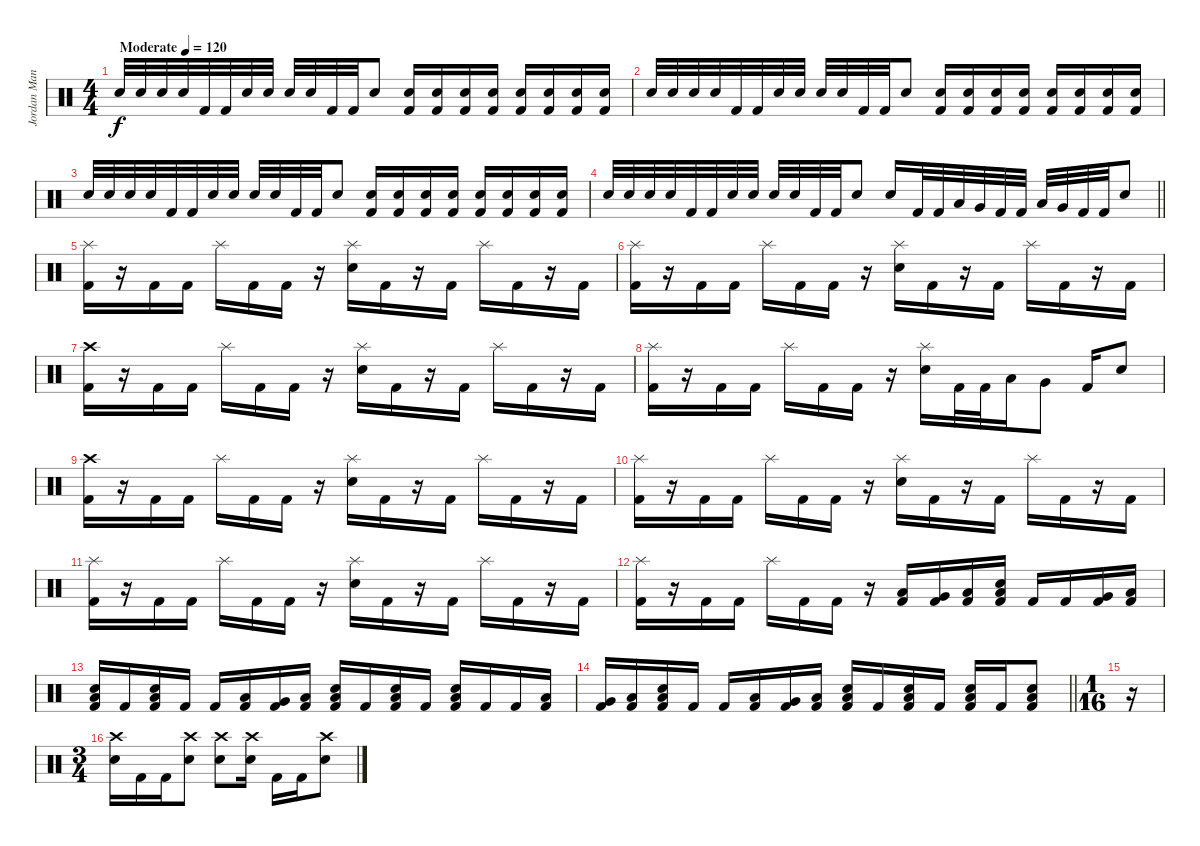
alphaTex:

\track ("Jordan Mancino" "Jordan Man") {instrument percussion}
\staff
\articulation defaults
\ts (4 4)
\tempo (120 "Moderate")
\clef neutral
\ks c "Snare (hit) 2".32{dy f} "Snare (hit) 2".32 "Snare (hit) 2".32 "Snare (hit) 2".32 "Kick (hit) 2".32 "Kick (hit) 2".32 "Snare (hit) 2".32 "Snare (hit) 2".32 "Snare (hit) 2".32 "Snare (hit) 2".32 "Kick (hit) 2".32 "Kick (hit) 2".32 "Snare (hit) 2".8
("Snare (hit) 2" "Kick (hit) 2").16 ("Snare (hit) 2" "Kick (hit) 2").16 ("Snare (hit) 2" "Kick (hit) 2").16 ("Snare (hit) 2" "Kick (hit) 2").16 ("Snare (hit) 2" "Kick (hit) 2").16 ("Snare (hit) 2" "Kick (hit) 2").16 ("Snare (hit) 2" "Kick (hit) 2").16 ("Snare (hit) 2" "Kick (hit) 2").16 |
"Snare (hit) 2".32 "Snare (hit) 2".32 "Snare (hit) 2".32 "Snare (hit) 2".32 "Kick (hit) 2".32 "Kick (hit) 2".32 "Snare (hit) 2".32 "Snare (hit) 2".32 "Snare (hit) 2".32 "Snare (hit) 2".32 "Kick (hit) 2".32 "Kick (hit) 2".32 "Snare (hit) 2".8 ("Snare (hit) 2" "Kick (hit) 2").16 ("Snare (hit) 2" "Kick (hit) 2").16 ("Snare (hit) 2" "Kick (hit) 2").16 ("Snare (hit) 2" "Kick (hit) 2").16 ("Snare (hit) 2" "Kick (hit) 2").16 ("Snare (hit) 2" "Kick (hit) 2").16 ("Snare (hit) 2" "Kick (hit) 2").16 ("Snare (hit) 2" "Kick (hit) 2").16 |
"Snare (hit) 2".32 "Snare (hit) 2".32 "Snare (hit) 2".32 "Snare (hit) 2".32 "Kick (hit) 2".32 "Kick (hit) 2".32 "Snare (hit) 2".32 "Snare (hit) 2".32 "Snare (hit) 2".32 "Snare (hit) 2".32 "Kick (hit) 2".32 "Kick (hit) 2".32 "Snare (hit) 2".8 ("Snare (hit) 2" "Kick (hit) 2").16 ("Snare (hit) 2" "Kick (hit) 2").16 ("Snare (hit) 2" "Kick (hit) 2").16 ("Snare (hit) 2" "Kick (hit) 2").16 ("Snare (hit) 2" "Kick (hit) 2").16 ("Snare (hit) 2" "Kick (hit) 2").16 ("Snare (hit) 2" "Kick (hit) 2").16 ("Snare (hit) 2" "Kick (hit) 2").16 |
\barLineRight lightlight "Snare (hit) 2".32 "Snare (hit) 2".32 "Snare (hit) 2".32 "Snare (hit) 2".32 "Kick (hit) 2".32 "Kick (hit) 2".32 "Snare (hit) 2".32 "Snare (hit) 2".32 "Snare (hit) 2".32 "Snare (hit) 2".32 "Kick (hit) 2".32 "Kick (hit) 2".32 "Snare (hit) 2".8 "Snare (hit) 2".16 "Kick (hit) 2".32 "Kick (hit) 2".32 "Low Tom (hit)".32 "Very Low Tom (hit)".32 "Kick (hit) 2".32 "Kick (hit) 2".32 "Low Tom (hit)".32 "Very Low Tom (hit)".32 "Kick (hit) 2".32 "Kick (hit) 2".32 "Snare (hit) 2".8
|
\section ("" " ")
("Splash (hit)" "Kick (hit) 2").16 r.16 "Kick (hit) 2".16 "Kick (hit) 2".16 "Splash (hit)".16 "Kick (hit) 2".16 "Kick (hit) 2".16 r.16 ("Splash (hit)" "Snare (hit) 2").16 "Kick (hit) 2".16 r.16 "Kick (hit) 2".16 "Splash (hit)".16 "Kick (hit) 2".16 r.16 "Kick (hit) 2".16 |
("Splash (hit)" "Kick (hit) 2").16 r.16 "Kick (hit) 2".16 "Kick (hit) 2".16 "Splash (hit)".16 "Kick (hit) 2".16 "Kick (hit) 2".16 r.16 ("Splash (hit)" "Snare (hit) 2").16 "Kick (hit) 2".16 r.16 "Kick (hit) 2".16 "Splash (hit)".16 "Kick (hit) 2".16 r.16 "Kick (hit) 2".16 |
("Crash high (hit)" "Kick (hit) 2").16 r.16 "Kick (hit) 2".16 "Kick (hit) 2".16 "Splash (hit)".16 "Kick (hit) 2".16 "Kick (hit) 2".16 r.16 ("Splash (hit)" "Snare (hit) 2").16 "Kick (hit) 2".16 r.16 "Kick (hit) 2".16 "Splash (hit)".16 "Kick (hit) 2".16 r.16 "Kick (hit) 2".16 |
("Splash (hit)" "Kick (hit) 2").16 r.16 "Kick (hit) 2".16 "Kick (hit) 2".16 "Splash (hit)".16 "Kick (hit) 2".16 "Kick (hit) 2".16 r.16 ("Splash (hit)" "Snare (hit) 2").16 "Kick (hit) 2".32 "Kick (hit) 2".32 "Low Tom (hit)".16 "Very Low Tom (hit)".8 "Kick (hit) 2".16 "Snare (hit) 2".8 |
("Crash high (hit)" "Kick (hit) 2").16 r.16 "Kick (hit) 2".16 "Kick (hit) 2".16 "Splash (hit)".16 "Kick (hit) 2".16 "Kick (hit) 2".16 r.16 ("Splash (hit)" "Snare (hit) 2").16 "Kick (hit) 2".16 r.16 "Kick (hit) 2".16 "Splash (hit)".16 "Kick (hit) 2".16 r.16 "Kick (hit) 2".16 |
("Splash (hit)" "Kick (hit) 2").16 r.16 "Kick (hit) 2".16 "Kick (hit) 2".16 "Splash (hit)".16 "Kick (hit) 2".16 "Kick (hit) 2".16 r.16 ("Splash (hit)" "Snare (hit) 2").16 "Kick (hit) 2".16 r.16 "Kick (hit) 2".16 "Splash (hit)".16 "Kick (hit) 2".16 r.16 "Kick (hit) 2".16 |
("Splash (hit)" "Kick (hit) 2").16 r.16 "Kick (hit) 2".16 "Kick (hit) 2".16 "Splash (hit)".16 "Kick (hit) 2".16 "Kick (hit) 2".16 r.16 ("Splash (hit)" "Snare (hit) 2").16 "Kick (hit) 2".16 r.16 "Kick (hit) 2".16 "Splash (hit)".16 "Kick (hit) 2".16 r.16 "Kick (hit) 2".16 |
("Splash (hit)" "Kick (hit) 2").16 r.16 "Kick (hit) 2".16 "Kick (hit) 2".16 "Splash (hit)".16 "Kick (hit) 2".16 "Kick (hit) 2".16 r.16 ("Kick (hit) 2" "Low Tom (hit)").16 ("Kick (hit) 2" "Very Low Tom (hit)").16 ("Kick (hit) 2" "Low Tom (hit)").16 ("Kick (hit) 2" "Snare (hit) 2" "Low Floor Tom (hit)").16 "Kick (hit) 2".16 "Kick (hit) 2".16 ("Kick (hit) 2" "Very Low Tom (hit)").16 ("Kick (hit) 2" "Low Tom (hit)").16 |
("Kick (hit) 2" "Snare (hit) 2" "Low Floor Tom (hit)").16 "Kick (hit) 2".16 ("Kick (hit) 2" "Snare (hit) 2" "Low Floor Tom (hit)").16 "Kick (hit) 2".16 "Kick (hit) 2".16 ("Kick (hit) 2" "Low Tom (hit)").16 ("Kick (hit) 2" "Very Low Tom (hit)").16 ("Kick (hit) 2" "Low Tom (hit)").16 ("Kick (hit) 2" "Snare (hit) 2" "Low Floor Tom (hit)").16 "Kick (hit) 2".16 ("Kick (hit) 2" "Snare (hit) 2" "Low Floor Tom (hit)").16 "Kick (hit) 2".16 ("Kick (hit) 2" "Snare (hit) 2" "Low Floor Tom (hit)").16 "Kick (hit) 2".16 "Kick (hit) 2".16 ("Kick (hit) 2" "Low Tom (hit)").16 |
\barLineRight lightlight
("Kick (hit) 2" "Very Low Tom (hit)").16 ("Kick (hit) 2" "Low Tom (hit)").16 ("Kick (hit) 2" "Snare (hit) 2" "Low Floor Tom (hit)").16 "Kick (hit) 2".16 "Kick (hit) 2".16 ("Kick (hit) 2" "Low Tom (hit)").16 ("Kick (hit) 2" "Very Low Tom (hit)").16 ("Kick (hit) 2" "Low Tom (hit)").16 ("Kick (hit) 2" "Snare (hit) 2" "Low Floor Tom (hit)").16 "Kick (hit) 2".16 ("Kick (hit) 2" "Snare (hit) 2" "Low Floor Tom (hit)").16 "Kick (hit) 2".16 ("Kick (hit) 2" "Snare (hit) 2" "Low Floor Tom (hit)").16 "Kick (hit) 2".16 ("Kick (hit) 2" "Snare (hit) 2" "Low Floor Tom (hit)").8 |
\ts (1 16)
r.16 |
\ts (3 4)
("Crash high (hit)" "Snare (hit) 2").16 "Kick (hit) 2".16 "Kick (hit) 2".16 ("Crash high (hit)" "Snare (hit) 2").8 ("Crash high (hit)" "Snare (hit) 2").8 ("Crash high (hit)" "Snare (hit) 2").16 "Kick (hit) 2".16 "Kick (hit) 2".16 ("Crash high (hit)" "Snare (hit) 2").8
